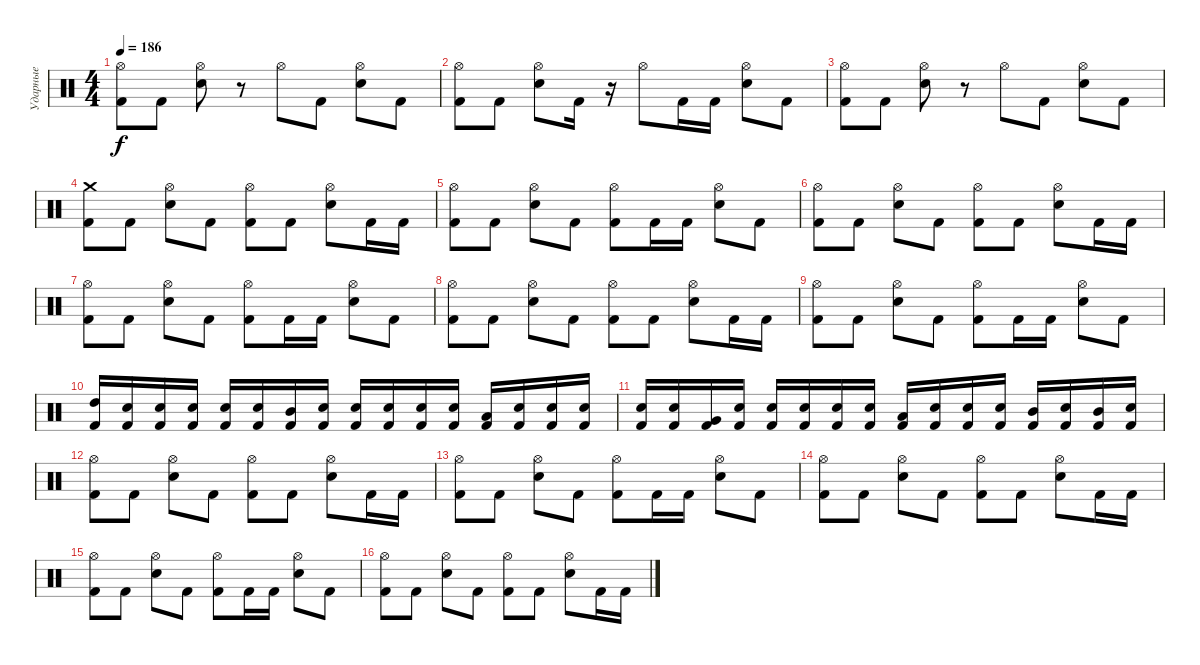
\track ("Ударные" "Ударные") {instrument percussion}
\staff {score}
\articulation defaults
\ts (4 4)
\tempo 186
\clef neutral
\ks c
("Kick (hit) 2" "Hi-Hat (open)").8{dy f} "Kick (hit) 2".8 ("Snare (hit) 2" "Hi-Hat (open)").8 r.8 "Hi-Hat (open)".8 "Kick (hit) 2".8 ("Snare (hit) 2" "Hi-Hat (open)").8 "Kick (hit) 2".8 |
("Kick (hit) 2" "Hi-Hat (open)").8 "Kick (hit) 2".8 ("Snare (hit) 2" "Hi-Hat (open)").8 "Kick (hit) 2".16 r.16 "Hi-Hat (open)".8 "Kick (hit) 2".16 "Kick (hit) 2".16 ("Snare (hit) 2" "Hi-Hat (open)").8 "Kick (hit) 2".8 |
("Kick (hit) 2" "Hi-Hat (open)").8 "Kick (hit) 2".8 ("Snare (hit) 2" "Hi-Hat (open)").8 r.8 "Hi-Hat (open)".8 "Kick (hit) 2".8 ("Snare (hit) 2" "Hi-Hat (open)").8 "Kick (hit) 2".8 |
("Kick (hit) 2" "Crash medium (hit)").8 "Kick (hit) 2".8 ("Snare (hit) 2" "Hi-Hat (open)").8 "Kick (hit) 2".8 ("Kick (hit) 2" "Hi-Hat (open)").8 "Kick (hit) 2".8 ("Snare (hit) 2" "Hi-Hat (open)").8 "Kick (hit) 2".16 "Kick (hit) 2".16 |
("Kick (hit) 2" "Hi-Hat (open)").8 "Kick (hit) 2".8 ("Snare (hit) 2" "Hi-Hat (open)").8 "Kick (hit) 2".8 ("Kick (hit) 2" "Hi-Hat (open)").8 "Kick (hit) 2".16 "Kick (hit) 2".16 ("Snare (hit) 2" "Hi-Hat (open)").8 "Kick (hit) 2".8 |
("Kick (hit) 2" "Hi-Hat (open)").8 "Kick (hit) 2".8 ("Snare (hit) 2" "Hi-Hat (open)").8 "Kick (hit) 2".8 ("Kick (hit) 2" "Hi-Hat (open)").8 "Kick (hit) 2".8 ("Snare (hit) 2" "Hi-Hat (open)").8 "Kick (hit) 2".16 "Kick (hit) 2".16 |
("Kick (hit) 2" "Hi-Hat (open)").8 "Kick (hit) 2".8 ("Snare (hit) 2" "Hi-Hat (open)").8 "Kick (hit) 2".8 ("Kick (hit) 2" "Hi-Hat (open)").8 "Kick (hit) 2".16 "Kick (hit) 2".16 ("Snare (hit) 2" "Hi-Hat (open)").8 "Kick (hit) 2".8 |
("Kick (hit) 2" "Hi-Hat (open)").8 "Kick (hit) 2".8 ("Snare (hit) 2" "Hi-Hat (open)").8 "Kick (hit) 2".8 ("Kick (hit) 2" "Hi-Hat (open)").8 "Kick (hit) 2".8 ("Snare (hit) 2" "Hi-Hat (open)").8 "Kick (hit) 2".16 "Kick (hit) 2".16 |
("Kick (hit) 2" "Hi-Hat (open)").8 "Kick (hit) 2".8 ("Snare (hit) 2" "Hi-Hat (open)").8 "Kick (hit) 2".8 ("Kick (hit) 2" "Hi-Hat (open)").8 "Kick (hit) 2".16 "Kick (hit) 2".16 ("Snare (hit) 2" "Hi-Hat (open)").8 "Kick (hit) 2".8 |
("Kick (hit) 2" "High Tom (hit)").16 ("Kick (hit) 2" "Snare (hit) 2").16 ("Kick (hit) 2" "Snare (hit) 2").16 ("Kick (hit) 2" "Snare (hit) 2").16 ("Kick (hit) 2" "Snare (hit) 2").16 ("Kick (hit) 2" "Snare (hit) 2").16 ("Kick (hit) 2" "Mid Tom (hit)").16 ("Kick (hit) 2" "Snare (hit) 2").16 ("Kick (hit) 2" "Snare (hit) 2").16 ("Kick (hit) 2" "Snare (hit) 2").16 ("Kick (hit) 2" "Snare (hit) 2").16 ("Kick (hit) 2" "Snare (hit) 2").16 ("Kick (hit) 2" "Low Tom (hit)").16 ("Kick (hit) 2" "Snare (hit) 2").16 ("Kick (hit) 2" "Snare (hit) 2").16 ("Kick (hit) 2" "Snare (hit) 2").16 |
("Kick (hit) 2" "Snare (hit) 2").16 ("Kick (hit) 2" "Snare (hit) 2").16 ("Kick (hit) 2" "Very Low Tom (hit)").16 ("Kick (hit) 2" "Snare (hit) 2").16 ("Kick (hit) 2" "Snare (hit) 2").16 ("Kick (hit) 2" "Snare (hit) 2").16 ("Kick (hit) 2" "Snare (hit) 2").16 ("Kick (hit) 2" "Snare (hit) 2").16 ("Kick (hit) 2" "Low Tom (hit)").16 ("Kick (hit) 2" "Snare (hit) 2").16 ("Kick (hit) 2" "Snare (hit) 2").16 ("Kick (hit) 2" "Snare (hit) 2").16 ("Kick (hit) 2" "Mid Tom (hit)").16 ("Kick (hit) 2" "Snare (hit) 2").16 ("Kick (hit) 2" "Mid Tom (hit)").16 ("Kick (hit) 2" "Snare (hit) 2").16 |
("Kick (hit) 2" "Hi-Hat (open)").8 "Kick (hit) 2".8 ("Snare (hit) 2" "Hi-Hat (open)").8 "Kick (hit) 2".8 ("Kick (hit) 2" "Hi-Hat (open)").8 "Kick (hit) 2".8 ("Snare (hit) 2" "Hi-Hat (open)").8 "Kick (hit) 2".16 "Kick (hit) 2".16 |
("Kick (hit) 2" "Hi-Hat (open)").8 "Kick (hit) 2".8 ("Snare (hit) 2" "Hi-Hat (open)").8 "Kick (hit) 2".8 ("Kick (hit) 2" "Hi-Hat (open)").8 "Kick (hit) 2".16 "Kick (hit) 2".16 ("Snare (hit) 2" "Hi-Hat (open)").8 "Kick (hit) 2".8 |
("Kick (hit) 2" "Hi-Hat (open)").8 "Kick (hit) 2".8 ("Snare (hit) 2" "Hi-Hat (open)").8 "Kick (hit) 2".8 ("Kick (hit) 2" "Hi-Hat (open)").8 "Kick (hit) 2".8 ("Snare (hit) 2" "Hi-Hat (open)").8 "Kick (hit) 2".16 "Kick (hit) 2".16 |
("Kick (hit) 2" "Hi-Hat (open)").8 "Kick (hit) 2".8 ("Snare (hit) 2" "Hi-Hat (open)").8 "Kick (hit) 2".8 ("Kick (hit) 2" "Hi-Hat (open)").8 "Kick (hit) 2".16 "Kick (hit) 2".16 ("Snare (hit) 2" "Hi-Hat (open)").8 "Kick (hit) 2".8 |
("Kick (hit) 2" "Hi-Hat (open)").8 "Kick (hit) 2".8 ("Snare (hit) 2" "Hi-Hat (open)").8 "Kick (hit) 2".8 ("Kick (hit) 2" "Hi-Hat (open)").8 "Kick (hit) 2".8 ("Snare (hit) 2" "Hi-Hat (open)").8 "Kick (hit) 2".16 "Kick (hit) 2".16
